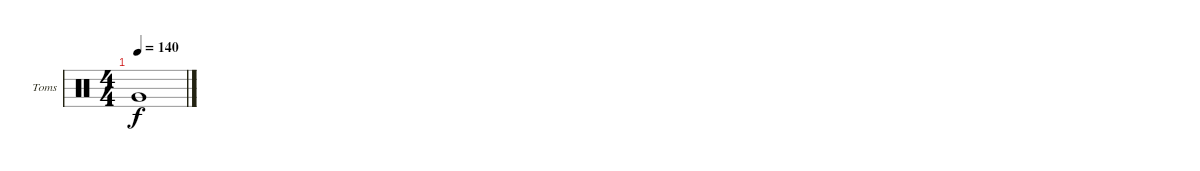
\bracketExtendMode groupsimilarinstruments
\firstSystemTrackNameOrientation horizontal
\otherSystemsTrackNameOrientation horizontal
\track ("Toms" "Toms") {instrument percussion}
\staff {score}
\articulation defaults
\ts (4 4)
\tempo 140
\clef neutral
\ks c "Very Low Tom (hit)".1{dy f}
